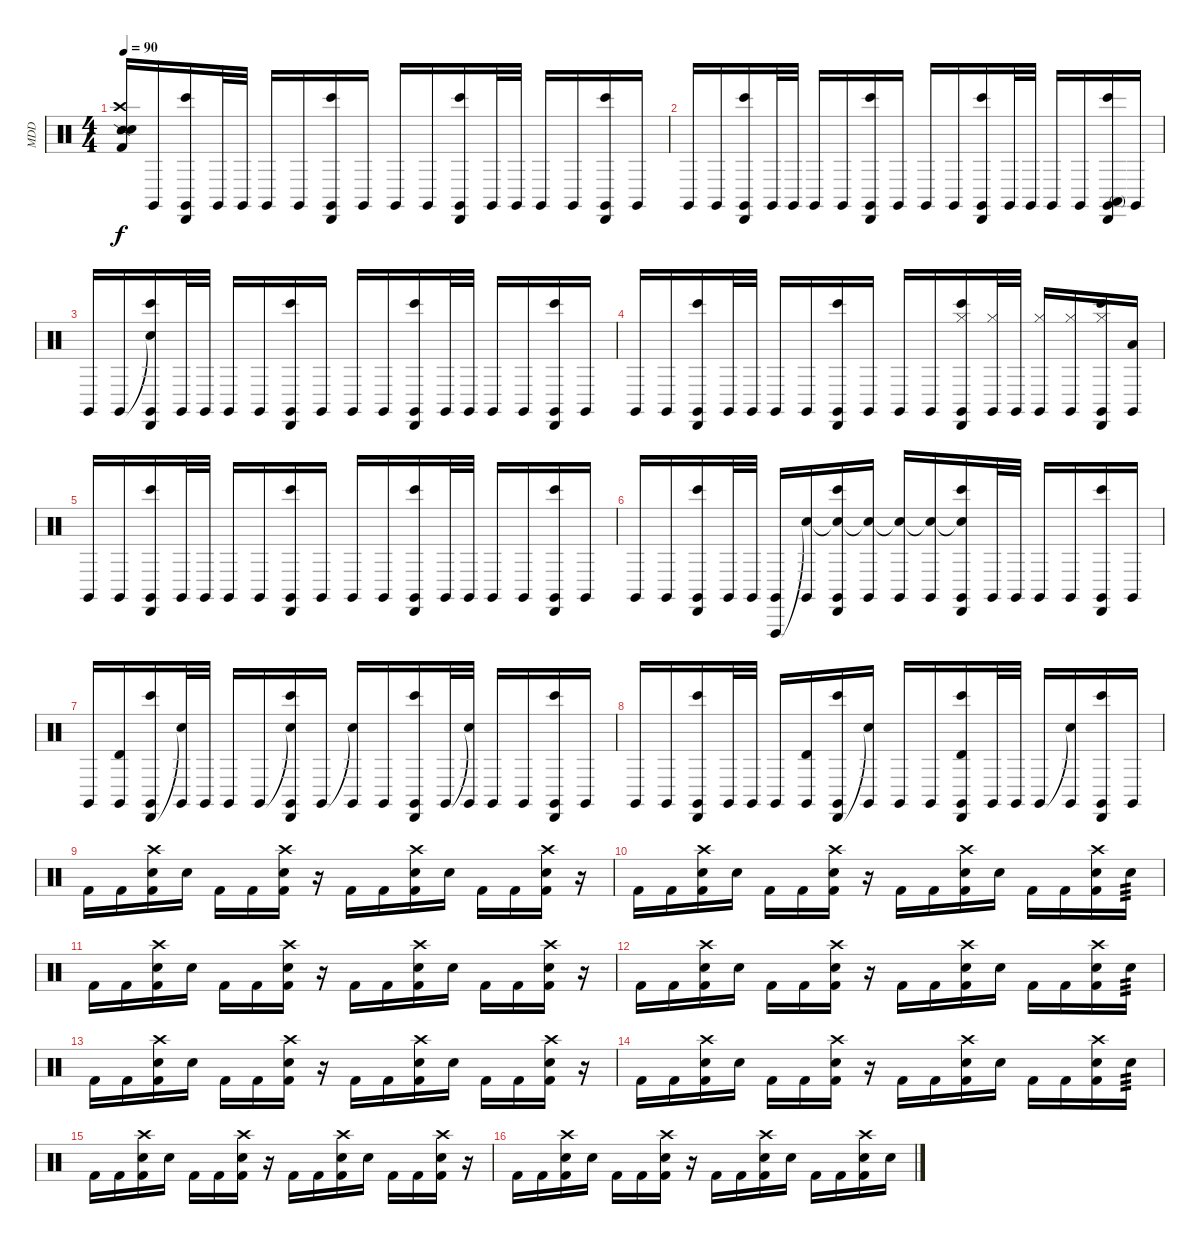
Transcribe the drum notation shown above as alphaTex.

\track ("MDD" "MDD") {instrument percussion}
\staff {score}
\articulation defaults
\ts (4 4)
\tempo 90
\clef neutral
\ks c
("Crash high (hit)" "Kick (hit) 2" "Snare (side stick) 2" "Snare (hit) 2").16{dy f} "Claves (hit)".16 ("Cabasa (hit)" "Claves (hit)" "Bongo High (hit)").16 "Claves (hit)".32 "Claves (hit)".32 "Claves (hit)".16 "Claves (hit)".16 ("Cabasa (hit)" "Claves (hit)" "Bongo High (hit)").16 "Claves (hit)".16 "Claves (hit)".16 "Claves (hit)".16 ("Cabasa (hit)" "Claves (hit)" "Bongo High (hit)").16 "Claves (hit)".32 "Claves (hit)".32 "Claves (hit)".16 "Claves (hit)".16 ("Cabasa (hit)" "Claves (hit)" "Bongo High (hit)").16 "Claves (hit)".16 |
"Claves (hit)".16 "Claves (hit)".16 ("Cabasa (hit)" "Claves (hit)" "Bongo High (hit)").16 "Claves (hit)".32 "Claves (hit)".32 "Claves (hit)".16 "Claves (hit)".16 ("Cabasa (hit)" "Claves (hit)" "Bongo High (hit)").16 "Claves (hit)".16 "Claves (hit)".16 "Claves (hit)".16 ("Cabasa (hit)" "Claves (hit)" "Bongo High (hit)").16 "Claves (hit)".32 "Claves (hit)".32 "Claves (hit)".16 "Claves (hit)".16 ("Conga high (mute)" "Cabasa (hit)" "Claves (hit)" "Bongo High (hit)").16 "Claves (hit)".16 |
"Claves (hit)".16 "Claves (hit)".16 ("Snare (hit)"{t} "Cabasa (hit)" "Claves (hit)" "Bongo High (hit)").16 "Claves (hit)".32 "Claves (hit)".32 "Claves (hit)".16 "Claves (hit)".16 ("Cabasa (hit)" "Claves (hit)" "Bongo High (hit)").16 "Claves (hit)".16 "Claves (hit)".16 "Claves (hit)".16 ("Cabasa (hit)" "Claves (hit)" "Bongo High (hit)").16 "Claves (hit)".32 "Claves (hit)".32 "Claves (hit)".16 "Claves (hit)".16 ("Cabasa (hit)" "Claves (hit)" "Bongo High (hit)").16 "Claves (hit)".16 |
"Claves (hit)".16 "Claves (hit)".16 ("Cabasa (hit)" "Claves (hit)" "Bongo High (hit)").16 "Claves (hit)".32 "Claves (hit)".32 "Claves (hit)".16 "Claves (hit)".16 ("Cabasa (hit)" "Claves (hit)" "Bongo High (hit)").16 "Claves (hit)".16 "Claves (hit)".16 "Claves (hit)".16 ("Hi-Hat (closed)" "Cabasa (hit)" "Claves (hit)" "Bongo High (hit)").16 ("Hi-Hat (closed)" "Claves (hit)").32 "Claves (hit)".32 ("Hi-Hat (closed)" "Claves (hit)").16 ("Hi-Hat (closed)" "Claves (hit)").16 ("Hi-Hat (closed)" "Cabasa (hit)" "Claves (hit)" "Bongo High (hit)").16 ("Low Floor Tom (hit)" "Claves (hit)").16 |
"Claves (hit)".16 "Claves (hit)".16 ("Cabasa (hit)" "Claves (hit)" "Bongo High (hit)").16 "Claves (hit)".32 "Claves (hit)".32 "Claves (hit)".16 "Claves (hit)".16 ("Cabasa (hit)" "Claves (hit)" "Bongo High (hit)").16 "Claves (hit)".16 "Claves (hit)".16 "Claves (hit)".16 ("Cabasa (hit)" "Claves (hit)" "Bongo High (hit)").16 "Claves (hit)".32 "Claves (hit)".32 "Claves (hit)".16 "Claves (hit)".16 ("Cabasa (hit)" "Claves (hit)" "Bongo High (hit)").16 "Claves (hit)".16 |
"Claves (hit)".16 "Claves (hit)".16 ("Cabasa (hit)" "Claves (hit)" "Bongo High (hit)").16 "Claves (hit)".32 "Claves (hit)".32 ("Vibraslap (hit)" "Claves (hit)").16 ("Snare (hit)"{t} "Claves (hit)").16 ("Snare (hit)"{t} "Cabasa (hit)" "Claves (hit)" "Bongo High (hit)").16 ("Snare (hit)"{t} "Claves (hit)").16 ("Snare (hit)"{t} "Claves (hit)").16 ("Snare (hit)"{t} "Claves (hit)").16 ("Snare (hit)"{t} "Cabasa (hit)" "Claves (hit)" "Bongo High (hit)").16 "Claves (hit)".32 "Claves (hit)".32 "Claves (hit)".16 "Claves (hit)".16 ("Cabasa (hit)" "Claves (hit)" "Bongo High (hit)").16 "Claves (hit)".16 |
"Claves (hit)".16 ("Timbale high (hit)" "Claves (hit)").16 ("Cabasa (hit)" "Claves (hit)" "Bongo High (hit)").16 ("Snare (hit)"{t} "Claves (hit)").32 "Claves (hit)".32 "Claves (hit)".16 "Claves (hit)".16 ("Snare (hit)"{t} "Cabasa (hit)" "Claves (hit)" "Bongo High (hit)").16 "Claves (hit)".16 ("Snare (hit)"{t} "Claves (hit)").16 "Claves (hit)".16 ("Cabasa (hit)" "Claves (hit)" "Bongo High (hit)").16 "Claves (hit)".32 ("Snare (hit)"{t} "Claves (hit)").32 "Claves (hit)".16 "Claves (hit)".16 ("Cabasa (hit)" "Claves (hit)" "Bongo High (hit)").16 "Claves (hit)".16 |
"Claves (hit)".16 "Claves (hit)".16 ("Cabasa (hit)" "Claves (hit)" "Bongo High (hit)").16 "Claves (hit)".32 "Claves (hit)".32 "Claves (hit)".16 ("Timbale high (hit)" "Claves (hit)").16 ("Cabasa (hit)" "Claves (hit)" "Bongo High (hit)").16 ("Snare (hit)"{t} "Claves (hit)").16 "Claves (hit)".16 "Claves (hit)".16 ("Timbale high (hit)" "Cabasa (hit)" "Claves (hit)" "Bongo High (hit)").16 "Claves (hit)".32 "Claves (hit)".32 "Claves (hit)".16 ("Snare (hit)"{t} "Claves (hit)").16 ("Cabasa (hit)" "Claves (hit)" "Bongo High (hit)").16 "Claves (hit)".16 |
"Kick (hit) 2".16 "Kick (hit) 2".16 ("Crash high (hit)" "Kick (hit) 2" "Snare (hit) 2").16 "Snare (hit) 2".16 "Kick (hit) 2".16 "Kick (hit) 2".16 ("Crash high (hit)" "Kick (hit) 2" "Snare (hit) 2").16 r.16 "Kick (hit) 2".16 "Kick (hit) 2".16 ("Crash high (hit)" "Kick (hit) 2" "Snare (hit) 2").16 "Snare (hit) 2".16 "Kick (hit) 2".16 "Kick (hit) 2".16 ("Crash high (hit)" "Kick (hit) 2" "Snare (hit) 2").16 r.16 |
"Kick (hit) 2".16 "Kick (hit) 2".16 ("Crash high (hit)" "Kick (hit) 2" "Snare (hit) 2").16 "Snare (hit) 2".16 "Kick (hit) 2".16 "Kick (hit) 2".16 ("Crash high (hit)" "Kick (hit) 2" "Snare (hit) 2").16 r.16 "Kick (hit) 2".16 "Kick (hit) 2".16 ("Crash high (hit)" "Kick (hit) 2" "Snare (hit) 2").16 "Snare (hit) 2".16 "Kick (hit) 2".16 "Kick (hit) 2".16 ("Crash high (hit)" "Kick (hit) 2" "Snare (hit) 2").16 "Snare (hit) 2".16{tp 3} |
"Kick (hit) 2".16 "Kick (hit) 2".16 ("Crash high (hit)" "Kick (hit) 2" "Snare (hit) 2").16 "Snare (hit) 2".16 "Kick (hit) 2".16 "Kick (hit) 2".16 ("Crash high (hit)" "Kick (hit) 2" "Snare (hit) 2").16 r.16 "Kick (hit) 2".16 "Kick (hit) 2".16 ("Crash high (hit)" "Kick (hit) 2" "Snare (hit) 2").16 "Snare (hit) 2".16 "Kick (hit) 2".16 "Kick (hit) 2".16 ("Crash high (hit)" "Kick (hit) 2" "Snare (hit) 2").16 r.16 |
"Kick (hit) 2".16 "Kick (hit) 2".16 ("Crash high (hit)" "Kick (hit) 2" "Snare (hit) 2").16 "Snare (hit) 2".16 "Kick (hit) 2".16 "Kick (hit) 2".16 ("Crash high (hit)" "Kick (hit) 2" "Snare (hit) 2").16 r.16 "Kick (hit) 2".16 "Kick (hit) 2".16 ("Crash high (hit)" "Kick (hit) 2" "Snare (hit) 2").16 "Snare (hit) 2".16 "Kick (hit) 2".16 "Kick (hit) 2".16 ("Crash high (hit)" "Kick (hit) 2" "Snare (hit) 2").16 "Snare (hit) 2".16{tp 3} |
"Kick (hit) 2".16 "Kick (hit) 2".16 ("Crash high (hit)" "Kick (hit) 2" "Snare (hit) 2").16 "Snare (hit) 2".16 "Kick (hit) 2".16 "Kick (hit) 2".16 ("Crash high (hit)" "Kick (hit) 2" "Snare (hit) 2").16 r.16 "Kick (hit) 2".16 "Kick (hit) 2".16 ("Crash high (hit)" "Kick (hit) 2" "Snare (hit) 2").16 "Snare (hit) 2".16 "Kick (hit) 2".16 "Kick (hit) 2".16 ("Crash high (hit)" "Kick (hit) 2" "Snare (hit) 2").16 r.16 |
"Kick (hit) 2".16 "Kick (hit) 2".16 ("Crash high (hit)" "Kick (hit) 2" "Snare (hit) 2").16 "Snare (hit) 2".16 "Kick (hit) 2".16 "Kick (hit) 2".16 ("Crash high (hit)" "Kick (hit) 2" "Snare (hit) 2").16 r.16 "Kick (hit) 2".16 "Kick (hit) 2".16 ("Crash high (hit)" "Kick (hit) 2" "Snare (hit) 2").16 "Snare (hit) 2".16 "Kick (hit) 2".16 "Kick (hit) 2".16 ("Crash high (hit)" "Kick (hit) 2" "Snare (hit) 2").16 "Snare (hit) 2".16{tp 3} |
"Kick (hit) 2".16 "Kick (hit) 2".16 ("Crash high (hit)" "Kick (hit) 2" "Snare (hit) 2").16 "Snare (hit) 2".16 "Kick (hit) 2".16 "Kick (hit) 2".16 ("Crash high (hit)" "Kick (hit) 2" "Snare (hit) 2").16 r.16 "Kick (hit) 2".16 "Kick (hit) 2".16 ("Crash high (hit)" "Kick (hit) 2" "Snare (hit) 2").16 "Snare (hit) 2".16 "Kick (hit) 2".16 "Kick (hit) 2".16 ("Crash high (hit)" "Kick (hit) 2" "Snare (hit) 2").16 r.16 |
"Kick (hit) 2".16 "Kick (hit) 2".16 ("Crash high (hit)" "Kick (hit) 2" "Snare (hit) 2").16 "Snare (hit) 2".16 "Kick (hit) 2".16 "Kick (hit) 2".16 ("Crash high (hit)" "Kick (hit) 2" "Snare (hit) 2").16 r.16 "Kick (hit) 2".16 "Kick (hit) 2".16 ("Crash high (hit)" "Kick (hit) 2" "Snare (hit) 2").16 "Snare (hit) 2".16 "Kick (hit) 2".16 "Kick (hit) 2".16 ("Crash high (hit)" "Kick (hit) 2" "Snare (hit) 2").16 "Snare (hit) 2".16
